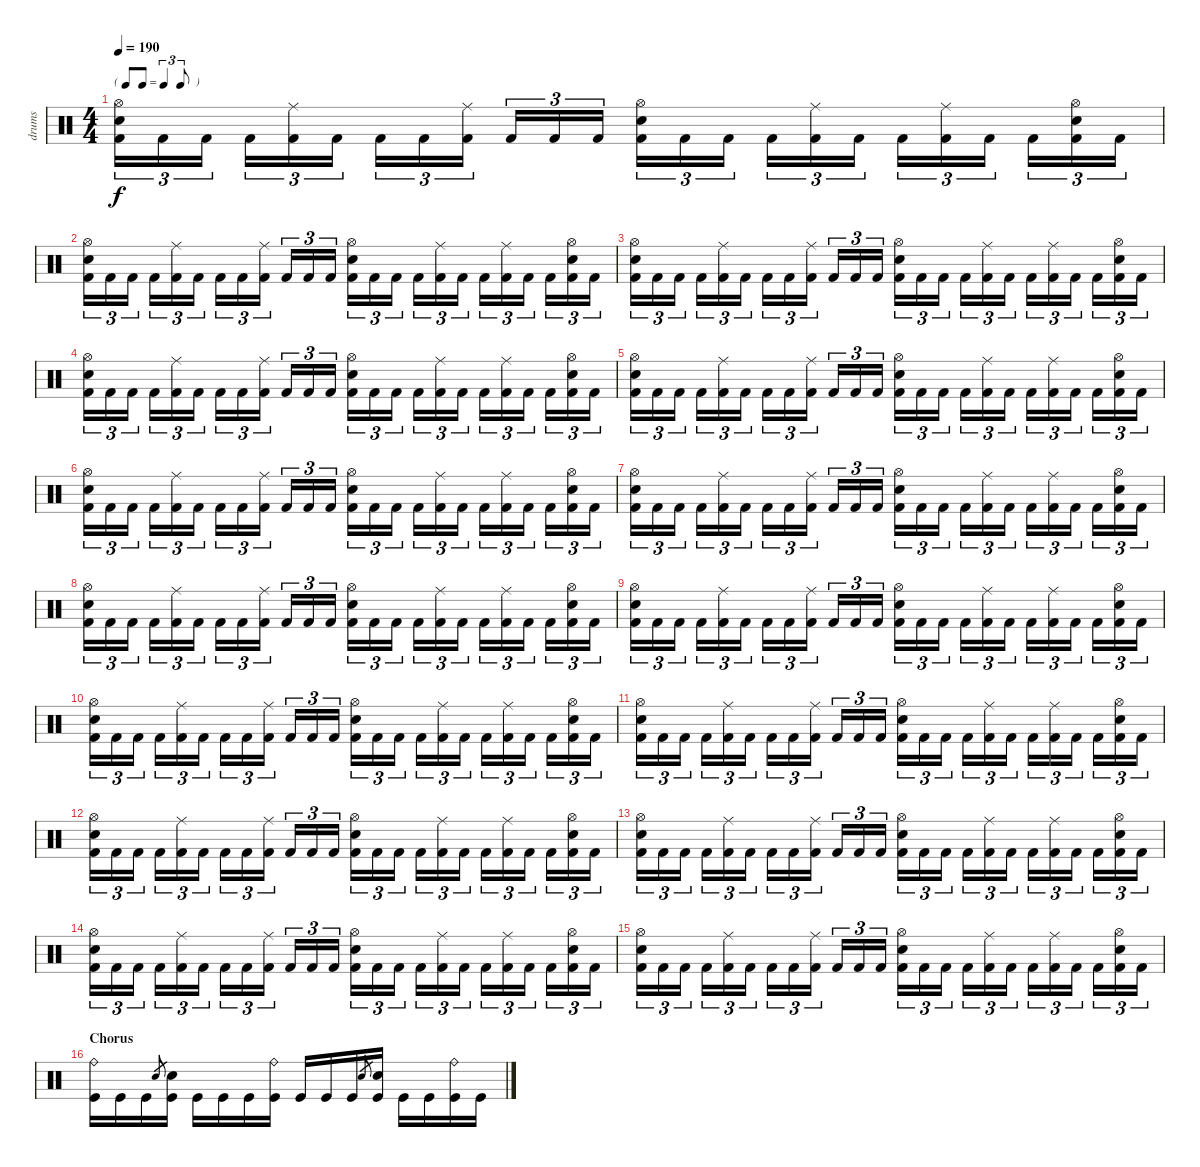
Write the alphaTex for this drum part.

\track ("drums" "drums") {instrument percussion}
\staff {score}
\articulation defaults
\ts (4 4)
\tf triplet8th
\tempo 190
\clef neutral
\ks c
("Kick (hit) 2" "Electric Snare (hit)" "Hi-Hat (open)").16{tu (3 2) dy f} "Kick (hit) 2".16{tu (3 2)} "Kick (hit) 2".16{tu (3 2)} "Kick (hit) 2".16{tu (3 2)} ("Kick (hit) 2" "Ride (middle)").16{tu (3 2)} "Kick (hit) 2".16{tu (3 2)} "Kick (hit) 2".16{tu (3 2)} "Kick (hit) 2".16{tu (3 2)} ("Kick (hit) 2" "Ride (middle)").16{tu (3 2)} "Kick (hit) 2".16{tu (3 2)} "Kick (hit) 2".16{tu (3 2)} "Kick (hit) 2".16{tu (3 2)} ("Kick (hit) 2" "Electric Snare (hit)" "Hi-Hat (open)").16{tu (3 2)} "Kick (hit) 2".16{tu (3 2)} "Kick (hit) 2".16{tu (3 2)} "Kick (hit) 2".16{tu (3 2)} ("Kick (hit) 2" "Ride (middle)").16{tu (3 2)} "Kick (hit) 2".16{tu (3 2)} "Kick (hit) 2".16{tu (3 2)} ("Kick (hit) 2" "Ride (middle)").16{tu (3 2)} "Kick (hit) 2".16{tu (3 2)} "Kick (hit) 2".16{tu (3 2)} ("Kick (hit) 2" "Electric Snare (hit)" "Hi-Hat (open)").16{tu (3 2)} "Kick (hit) 2".16{tu (3 2)} |
("Kick (hit) 2" "Electric Snare (hit)" "Hi-Hat (open)").16{tu (3 2)} "Kick (hit) 2".16{tu (3 2)} "Kick (hit) 2".16{tu (3 2)} "Kick (hit) 2".16{tu (3 2)} ("Kick (hit) 2" "Ride (middle)").16{tu (3 2)} "Kick (hit) 2".16{tu (3 2)} "Kick (hit) 2".16{tu (3 2)} "Kick (hit) 2".16{tu (3 2)} ("Kick (hit) 2" "Ride (middle)").16{tu (3 2)} "Kick (hit) 2".16{tu (3 2)} "Kick (hit) 2".16{tu (3 2)} "Kick (hit) 2".16{tu (3 2)} ("Kick (hit) 2" "Electric Snare (hit)" "Hi-Hat (open)").16{tu (3 2)} "Kick (hit) 2".16{tu (3 2)} "Kick (hit) 2".16{tu (3 2)} "Kick (hit) 2".16{tu (3 2)} ("Kick (hit) 2" "Ride (middle)").16{tu (3 2)} "Kick (hit) 2".16{tu (3 2)} "Kick (hit) 2".16{tu (3 2)} ("Kick (hit) 2" "Ride (middle)").16{tu (3 2)} "Kick (hit) 2".16{tu (3 2)} "Kick (hit) 2".16{tu (3 2)} ("Kick (hit) 2" "Electric Snare (hit)" "Hi-Hat (open)").16{tu (3 2)} "Kick (hit) 2".16{tu (3 2)} |
("Kick (hit) 2" "Electric Snare (hit)" "Hi-Hat (open)").16{tu (3 2)} "Kick (hit) 2".16{tu (3 2)} "Kick (hit) 2".16{tu (3 2)} "Kick (hit) 2".16{tu (3 2)} ("Kick (hit) 2" "Ride (middle)").16{tu (3 2)} "Kick (hit) 2".16{tu (3 2)} "Kick (hit) 2".16{tu (3 2)} "Kick (hit) 2".16{tu (3 2)} ("Kick (hit) 2" "Ride (middle)").16{tu (3 2)} "Kick (hit) 2".16{tu (3 2)} "Kick (hit) 2".16{tu (3 2)} "Kick (hit) 2".16{tu (3 2)} ("Kick (hit) 2" "Electric Snare (hit)" "Hi-Hat (open)").16{tu (3 2)} "Kick (hit) 2".16{tu (3 2)} "Kick (hit) 2".16{tu (3 2)} "Kick (hit) 2".16{tu (3 2)} ("Kick (hit) 2" "Ride (middle)").16{tu (3 2)} "Kick (hit) 2".16{tu (3 2)} "Kick (hit) 2".16{tu (3 2)} ("Kick (hit) 2" "Ride (middle)").16{tu (3 2)} "Kick (hit) 2".16{tu (3 2)} "Kick (hit) 2".16{tu (3 2)} ("Kick (hit) 2" "Electric Snare (hit)" "Hi-Hat (open)").16{tu (3 2)} "Kick (hit) 2".16{tu (3 2)} |
("Kick (hit) 2" "Electric Snare (hit)" "Hi-Hat (open)").16{tu (3 2)} "Kick (hit) 2".16{tu (3 2)} "Kick (hit) 2".16{tu (3 2)} "Kick (hit) 2".16{tu (3 2)} ("Kick (hit) 2" "Ride (middle)").16{tu (3 2)} "Kick (hit) 2".16{tu (3 2)} "Kick (hit) 2".16{tu (3 2)} "Kick (hit) 2".16{tu (3 2)} ("Kick (hit) 2" "Ride (middle)").16{tu (3 2)} "Kick (hit) 2".16{tu (3 2)} "Kick (hit) 2".16{tu (3 2)} "Kick (hit) 2".16{tu (3 2)} ("Kick (hit) 2" "Electric Snare (hit)" "Hi-Hat (open)").16{tu (3 2)} "Kick (hit) 2".16{tu (3 2)} "Kick (hit) 2".16{tu (3 2)} "Kick (hit) 2".16{tu (3 2)} ("Kick (hit) 2" "Ride (middle)").16{tu (3 2)} "Kick (hit) 2".16{tu (3 2)} "Kick (hit) 2".16{tu (3 2)} ("Kick (hit) 2" "Ride (middle)").16{tu (3 2)} "Kick (hit) 2".16{tu (3 2)} "Kick (hit) 2".16{tu (3 2)} ("Kick (hit) 2" "Electric Snare (hit)" "Hi-Hat (open)").16{tu (3 2)} "Kick (hit) 2".16{tu (3 2)} |
("Kick (hit) 2" "Electric Snare (hit)" "Hi-Hat (open)").16{tu (3 2)} "Kick (hit) 2".16{tu (3 2)} "Kick (hit) 2".16{tu (3 2)} "Kick (hit) 2".16{tu (3 2)} ("Kick (hit) 2" "Ride (middle)").16{tu (3 2)} "Kick (hit) 2".16{tu (3 2)} "Kick (hit) 2".16{tu (3 2)} "Kick (hit) 2".16{tu (3 2)} ("Kick (hit) 2" "Ride (middle)").16{tu (3 2)} "Kick (hit) 2".16{tu (3 2)} "Kick (hit) 2".16{tu (3 2)} "Kick (hit) 2".16{tu (3 2)} ("Kick (hit) 2" "Electric Snare (hit)" "Hi-Hat (open)").16{tu (3 2)} "Kick (hit) 2".16{tu (3 2)} "Kick (hit) 2".16{tu (3 2)} "Kick (hit) 2".16{tu (3 2)} ("Kick (hit) 2" "Ride (middle)").16{tu (3 2)} "Kick (hit) 2".16{tu (3 2)} "Kick (hit) 2".16{tu (3 2)} ("Kick (hit) 2" "Ride (middle)").16{tu (3 2)} "Kick (hit) 2".16{tu (3 2)} "Kick (hit) 2".16{tu (3 2)} ("Kick (hit) 2" "Electric Snare (hit)" "Hi-Hat (open)").16{tu (3 2)} "Kick (hit) 2".16{tu (3 2)} |
("Kick (hit) 2" "Electric Snare (hit)" "Hi-Hat (open)").16{tu (3 2)} "Kick (hit) 2".16{tu (3 2)} "Kick (hit) 2".16{tu (3 2)} "Kick (hit) 2".16{tu (3 2)} ("Kick (hit) 2" "Ride (middle)").16{tu (3 2)} "Kick (hit) 2".16{tu (3 2)} "Kick (hit) 2".16{tu (3 2)} "Kick (hit) 2".16{tu (3 2)} ("Kick (hit) 2" "Ride (middle)").16{tu (3 2)} "Kick (hit) 2".16{tu (3 2)} "Kick (hit) 2".16{tu (3 2)} "Kick (hit) 2".16{tu (3 2)} ("Kick (hit) 2" "Electric Snare (hit)" "Hi-Hat (open)").16{tu (3 2)} "Kick (hit) 2".16{tu (3 2)} "Kick (hit) 2".16{tu (3 2)} "Kick (hit) 2".16{tu (3 2)} ("Kick (hit) 2" "Ride (middle)").16{tu (3 2)} "Kick (hit) 2".16{tu (3 2)} "Kick (hit) 2".16{tu (3 2)} ("Kick (hit) 2" "Ride (middle)").16{tu (3 2)} "Kick (hit) 2".16{tu (3 2)} "Kick (hit) 2".16{tu (3 2)} ("Kick (hit) 2" "Electric Snare (hit)" "Hi-Hat (open)").16{tu (3 2)} "Kick (hit) 2".16{tu (3 2)} |
("Kick (hit) 2" "Electric Snare (hit)" "Hi-Hat (open)").16{tu (3 2)} "Kick (hit) 2".16{tu (3 2)} "Kick (hit) 2".16{tu (3 2)} "Kick (hit) 2".16{tu (3 2)} ("Kick (hit) 2" "Ride (middle)").16{tu (3 2)} "Kick (hit) 2".16{tu (3 2)} "Kick (hit) 2".16{tu (3 2)} "Kick (hit) 2".16{tu (3 2)} ("Kick (hit) 2" "Ride (middle)").16{tu (3 2)} "Kick (hit) 2".16{tu (3 2)} "Kick (hit) 2".16{tu (3 2)} "Kick (hit) 2".16{tu (3 2)} ("Kick (hit) 2" "Electric Snare (hit)" "Hi-Hat (open)").16{tu (3 2)} "Kick (hit) 2".16{tu (3 2)} "Kick (hit) 2".16{tu (3 2)} "Kick (hit) 2".16{tu (3 2)} ("Kick (hit) 2" "Ride (middle)").16{tu (3 2)} "Kick (hit) 2".16{tu (3 2)} "Kick (hit) 2".16{tu (3 2)} ("Kick (hit) 2" "Ride (middle)").16{tu (3 2)} "Kick (hit) 2".16{tu (3 2)} "Kick (hit) 2".16{tu (3 2)} ("Kick (hit) 2" "Electric Snare (hit)" "Hi-Hat (open)").16{tu (3 2)} "Kick (hit) 2".16{tu (3 2)} |
("Kick (hit) 2" "Electric Snare (hit)" "Hi-Hat (open)").16{tu (3 2)} "Kick (hit) 2".16{tu (3 2)} "Kick (hit) 2".16{tu (3 2)} "Kick (hit) 2".16{tu (3 2)} ("Kick (hit) 2" "Ride (middle)").16{tu (3 2)} "Kick (hit) 2".16{tu (3 2)} "Kick (hit) 2".16{tu (3 2)} "Kick (hit) 2".16{tu (3 2)} ("Kick (hit) 2" "Ride (middle)").16{tu (3 2)} "Kick (hit) 2".16{tu (3 2)} "Kick (hit) 2".16{tu (3 2)} "Kick (hit) 2".16{tu (3 2)} ("Kick (hit) 2" "Electric Snare (hit)" "Hi-Hat (open)").16{tu (3 2)} "Kick (hit) 2".16{tu (3 2)} "Kick (hit) 2".16{tu (3 2)} "Kick (hit) 2".16{tu (3 2)} ("Kick (hit) 2" "Ride (middle)").16{tu (3 2)} "Kick (hit) 2".16{tu (3 2)} "Kick (hit) 2".16{tu (3 2)} ("Kick (hit) 2" "Ride (middle)").16{tu (3 2)} "Kick (hit) 2".16{tu (3 2)} "Kick (hit) 2".16{tu (3 2)} ("Kick (hit) 2" "Electric Snare (hit)" "Hi-Hat (open)").16{tu (3 2)} "Kick (hit) 2".16{tu (3 2)} |
("Kick (hit) 2" "Electric Snare (hit)" "Hi-Hat (open)").16{tu (3 2)} "Kick (hit) 2".16{tu (3 2)} "Kick (hit) 2".16{tu (3 2)} "Kick (hit) 2".16{tu (3 2)} ("Kick (hit) 2" "Ride (middle)").16{tu (3 2)} "Kick (hit) 2".16{tu (3 2)} "Kick (hit) 2".16{tu (3 2)} "Kick (hit) 2".16{tu (3 2)} ("Kick (hit) 2" "Ride (middle)").16{tu (3 2)} "Kick (hit) 2".16{tu (3 2)} "Kick (hit) 2".16{tu (3 2)} "Kick (hit) 2".16{tu (3 2)} ("Kick (hit) 2" "Electric Snare (hit)" "Hi-Hat (open)").16{tu (3 2)} "Kick (hit) 2".16{tu (3 2)} "Kick (hit) 2".16{tu (3 2)} "Kick (hit) 2".16{tu (3 2)} ("Kick (hit) 2" "Ride (middle)").16{tu (3 2)} "Kick (hit) 2".16{tu (3 2)} "Kick (hit) 2".16{tu (3 2)} ("Kick (hit) 2" "Ride (middle)").16{tu (3 2)} "Kick (hit) 2".16{tu (3 2)} "Kick (hit) 2".16{tu (3 2)} ("Kick (hit) 2" "Electric Snare (hit)" "Hi-Hat (open)").16{tu (3 2)} "Kick (hit) 2".16{tu (3 2)} |
("Kick (hit) 2" "Electric Snare (hit)" "Hi-Hat (open)").16{tu (3 2)} "Kick (hit) 2".16{tu (3 2)} "Kick (hit) 2".16{tu (3 2)} "Kick (hit) 2".16{tu (3 2)} ("Kick (hit) 2" "Ride (middle)").16{tu (3 2)} "Kick (hit) 2".16{tu (3 2)} "Kick (hit) 2".16{tu (3 2)} "Kick (hit) 2".16{tu (3 2)} ("Kick (hit) 2" "Ride (middle)").16{tu (3 2)} "Kick (hit) 2".16{tu (3 2)} "Kick (hit) 2".16{tu (3 2)} "Kick (hit) 2".16{tu (3 2)} ("Kick (hit) 2" "Electric Snare (hit)" "Hi-Hat (open)").16{tu (3 2)} "Kick (hit) 2".16{tu (3 2)} "Kick (hit) 2".16{tu (3 2)} "Kick (hit) 2".16{tu (3 2)} ("Kick (hit) 2" "Ride (middle)").16{tu (3 2)} "Kick (hit) 2".16{tu (3 2)} "Kick (hit) 2".16{tu (3 2)} ("Kick (hit) 2" "Ride (middle)").16{tu (3 2)} "Kick (hit) 2".16{tu (3 2)} "Kick (hit) 2".16{tu (3 2)} ("Kick (hit) 2" "Electric Snare (hit)" "Hi-Hat (open)").16{tu (3 2)} "Kick (hit) 2".16{tu (3 2)} |
("Kick (hit) 2" "Electric Snare (hit)" "Hi-Hat (open)").16{tu (3 2)} "Kick (hit) 2".16{tu (3 2)} "Kick (hit) 2".16{tu (3 2)} "Kick (hit) 2".16{tu (3 2)} ("Kick (hit) 2" "Ride (middle)").16{tu (3 2)} "Kick (hit) 2".16{tu (3 2)} "Kick (hit) 2".16{tu (3 2)} "Kick (hit) 2".16{tu (3 2)} ("Kick (hit) 2" "Ride (middle)").16{tu (3 2)} "Kick (hit) 2".16{tu (3 2)} "Kick (hit) 2".16{tu (3 2)} "Kick (hit) 2".16{tu (3 2)} ("Kick (hit) 2" "Electric Snare (hit)" "Hi-Hat (open)").16{tu (3 2)} "Kick (hit) 2".16{tu (3 2)} "Kick (hit) 2".16{tu (3 2)} "Kick (hit) 2".16{tu (3 2)} ("Kick (hit) 2" "Ride (middle)").16{tu (3 2)} "Kick (hit) 2".16{tu (3 2)} "Kick (hit) 2".16{tu (3 2)} ("Kick (hit) 2" "Ride (middle)").16{tu (3 2)} "Kick (hit) 2".16{tu (3 2)} "Kick (hit) 2".16{tu (3 2)} ("Kick (hit) 2" "Electric Snare (hit)" "Hi-Hat (open)").16{tu (3 2)} "Kick (hit) 2".16{tu (3 2)} |
("Kick (hit) 2" "Electric Snare (hit)" "Hi-Hat (open)").16{tu (3 2)} "Kick (hit) 2".16{tu (3 2)} "Kick (hit) 2".16{tu (3 2)} "Kick (hit) 2".16{tu (3 2)} ("Kick (hit) 2" "Ride (middle)").16{tu (3 2)} "Kick (hit) 2".16{tu (3 2)} "Kick (hit) 2".16{tu (3 2)} "Kick (hit) 2".16{tu (3 2)} ("Kick (hit) 2" "Ride (middle)").16{tu (3 2)} "Kick (hit) 2".16{tu (3 2)} "Kick (hit) 2".16{tu (3 2)} "Kick (hit) 2".16{tu (3 2)} ("Kick (hit) 2" "Electric Snare (hit)" "Hi-Hat (open)").16{tu (3 2)} "Kick (hit) 2".16{tu (3 2)} "Kick (hit) 2".16{tu (3 2)} "Kick (hit) 2".16{tu (3 2)} ("Kick (hit) 2" "Ride (middle)").16{tu (3 2)} "Kick (hit) 2".16{tu (3 2)} "Kick (hit) 2".16{tu (3 2)} ("Kick (hit) 2" "Ride (middle)").16{tu (3 2)} "Kick (hit) 2".16{tu (3 2)} "Kick (hit) 2".16{tu (3 2)} ("Kick (hit) 2" "Electric Snare (hit)" "Hi-Hat (open)").16{tu (3 2)} "Kick (hit) 2".16{tu (3 2)} |
("Kick (hit) 2" "Electric Snare (hit)" "Hi-Hat (open)").16{tu (3 2)} "Kick (hit) 2".16{tu (3 2)} "Kick (hit) 2".16{tu (3 2)} "Kick (hit) 2".16{tu (3 2)} ("Kick (hit) 2" "Ride (middle)").16{tu (3 2)} "Kick (hit) 2".16{tu (3 2)} "Kick (hit) 2".16{tu (3 2)} "Kick (hit) 2".16{tu (3 2)} ("Kick (hit) 2" "Ride (middle)").16{tu (3 2)} "Kick (hit) 2".16{tu (3 2)} "Kick (hit) 2".16{tu (3 2)} "Kick (hit) 2".16{tu (3 2)} ("Kick (hit) 2" "Electric Snare (hit)" "Hi-Hat (open)").16{tu (3 2)} "Kick (hit) 2".16{tu (3 2)} "Kick (hit) 2".16{tu (3 2)} "Kick (hit) 2".16{tu (3 2)} ("Kick (hit) 2" "Ride (middle)").16{tu (3 2)} "Kick (hit) 2".16{tu (3 2)} "Kick (hit) 2".16{tu (3 2)} ("Kick (hit) 2" "Ride (middle)").16{tu (3 2)} "Kick (hit) 2".16{tu (3 2)} "Kick (hit) 2".16{tu (3 2)} ("Kick (hit) 2" "Electric Snare (hit)" "Hi-Hat (open)").16{tu (3 2)} "Kick (hit) 2".16{tu (3 2)} |
("Kick (hit) 2" "Electric Snare (hit)" "Hi-Hat (open)").16{tu (3 2)} "Kick (hit) 2".16{tu (3 2)} "Kick (hit) 2".16{tu (3 2)} "Kick (hit) 2".16{tu (3 2)} ("Kick (hit) 2" "Ride (middle)").16{tu (3 2)} "Kick (hit) 2".16{tu (3 2)} "Kick (hit) 2".16{tu (3 2)} "Kick (hit) 2".16{tu (3 2)} ("Kick (hit) 2" "Ride (middle)").16{tu (3 2)} "Kick (hit) 2".16{tu (3 2)} "Kick (hit) 2".16{tu (3 2)} "Kick (hit) 2".16{tu (3 2)} ("Kick (hit) 2" "Electric Snare (hit)" "Hi-Hat (open)").16{tu (3 2)} "Kick (hit) 2".16{tu (3 2)} "Kick (hit) 2".16{tu (3 2)} "Kick (hit) 2".16{tu (3 2)} ("Kick (hit) 2" "Ride (middle)").16{tu (3 2)} "Kick (hit) 2".16{tu (3 2)} "Kick (hit) 2".16{tu (3 2)} ("Kick (hit) 2" "Ride (middle)").16{tu (3 2)} "Kick (hit) 2".16{tu (3 2)} "Kick (hit) 2".16{tu (3 2)} ("Kick (hit) 2" "Electric Snare (hit)" "Hi-Hat (open)").16{tu (3 2)} "Kick (hit) 2".16{tu (3 2)} |
("Kick (hit) 2" "Electric Snare (hit)" "Hi-Hat (open)").16{tu (3 2)} "Kick (hit) 2".16{tu (3 2)} "Kick (hit) 2".16{tu (3 2)} "Kick (hit) 2".16{tu (3 2)} ("Kick (hit) 2" "Ride (middle)").16{tu (3 2)} "Kick (hit) 2".16{tu (3 2)} "Kick (hit) 2".16{tu (3 2)} "Kick (hit) 2".16{tu (3 2)} ("Kick (hit) 2" "Ride (middle)").16{tu (3 2)} "Kick (hit) 2".16{tu (3 2)} "Kick (hit) 2".16{tu (3 2)} "Kick (hit) 2".16{tu (3 2)} ("Kick (hit) 2" "Electric Snare (hit)" "Hi-Hat (open)").16{tu (3 2)} "Kick (hit) 2".16{tu (3 2)} "Kick (hit) 2".16{tu (3 2)} "Kick (hit) 2".16{tu (3 2)} ("Kick (hit) 2" "Ride (middle)").16{tu (3 2)} "Kick (hit) 2".16{tu (3 2)} "Kick (hit) 2".16{tu (3 2)} ("Kick (hit) 2" "Ride (middle)").16{tu (3 2)} "Kick (hit) 2".16{tu (3 2)} "Kick (hit) 2".16{tu (3 2)} ("Kick (hit) 2" "Electric Snare (hit)" "Hi-Hat (open)").16{tu (3 2)} "Kick (hit) 2".16{tu (3 2)} |
\section ("" "Chorus")
("Kick (hit)" "Ride (bell)").16 "Kick (hit)".16 "Kick (hit)".16 "Electric Snare (hit)".8{gr} ("Kick (hit)" "Electric Snare (hit)").16 "Kick (hit)".16 "Kick (hit)".16 "Kick (hit)".16 ("Kick (hit)" "Ride (bell)").16 "Kick (hit)".16 "Kick (hit)".16 "Kick (hit)".16 "Electric Snare (hit)".8{gr} ("Kick (hit)" "Electric Snare (hit)").16 "Kick (hit)".16 "Kick (hit)".16 ("Kick (hit)" "Ride (bell)").16 "Kick (hit)".16
